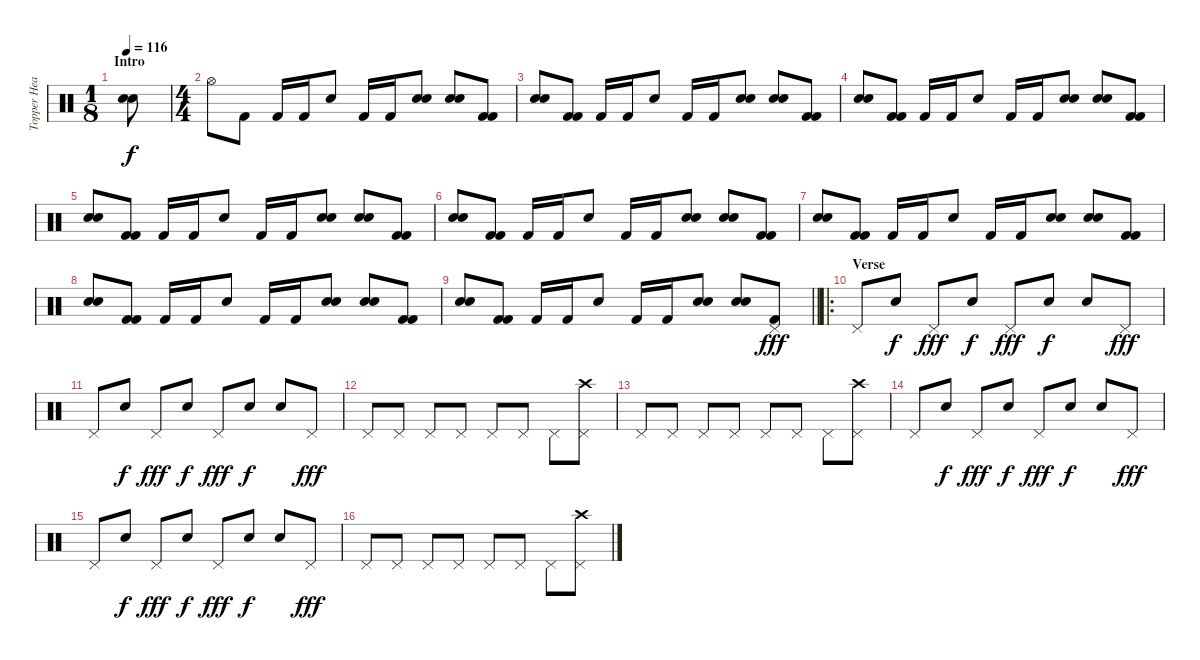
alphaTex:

\track ("Topper Headon - Percussion" "Topper Hea") {instrument percussion}
\staff {score}
\articulation defaults
\ts (1 8)
\section ("" "Intro")
\tempo 116
\clef neutral
\ks c
("Snare (hit) 2" "Snare (hit) 2").8{bd 480 dy f} |
\ts (4 4)
"Hi-Hat (open)".8 "Kick (hit) 2".8 "Kick (hit) 2".16 "Kick (hit) 2".16 "Snare (hit) 2".8 "Kick (hit) 2".16 "Kick (hit) 2".16 ("Snare (hit) 2" "Snare (hit) 2").8 ("Snare (hit) 2" "Snare (hit) 2").8 ("Kick (hit) 2" "Kick (hit) 2").8 |
("Snare (hit) 2" "Snare (hit) 2").8 ("Kick (hit) 2" "Kick (hit) 2").8 "Kick (hit) 2".16 "Kick (hit) 2".16 "Snare (hit) 2".8 "Kick (hit) 2".16 "Kick (hit) 2".16 ("Snare (hit) 2" "Snare (hit) 2").8 ("Snare (hit) 2" "Snare (hit) 2").8 ("Kick (hit) 2" "Kick (hit) 2").8 |
("Snare (hit) 2" "Snare (hit) 2").8 ("Kick (hit) 2" "Kick (hit) 2").8 "Kick (hit) 2".16 "Kick (hit) 2".16 "Snare (hit) 2".8 "Kick (hit) 2".16 "Kick (hit) 2".16 ("Snare (hit) 2" "Snare (hit) 2").8 ("Snare (hit) 2" "Snare (hit) 2").8 ("Kick (hit) 2" "Kick (hit) 2").8 |
("Snare (hit) 2" "Snare (hit) 2").8 ("Kick (hit) 2" "Kick (hit) 2").8 "Kick (hit) 2".16 "Kick (hit) 2".16 "Snare (hit) 2".8 "Kick (hit) 2".16 "Kick (hit) 2".16 ("Snare (hit) 2" "Snare (hit) 2").8 ("Snare (hit) 2" "Snare (hit) 2").8 ("Kick (hit) 2" "Kick (hit) 2").8 |
("Snare (hit) 2" "Snare (hit) 2").8 ("Kick (hit) 2" "Kick (hit) 2").8 "Kick (hit) 2".16 "Kick (hit) 2".16 "Snare (hit) 2".8 "Kick (hit) 2".16 "Kick (hit) 2".16 ("Snare (hit) 2" "Snare (hit) 2").8 ("Snare (hit) 2" "Snare (hit) 2").8 ("Kick (hit) 2" "Kick (hit) 2").8 |
("Snare (hit) 2" "Snare (hit) 2").8 ("Kick (hit) 2" "Kick (hit) 2").8 "Kick (hit) 2".16 "Kick (hit) 2".16 "Snare (hit) 2".8 "Kick (hit) 2".16 "Kick (hit) 2".16 ("Snare (hit) 2" "Snare (hit) 2").8 ("Snare (hit) 2" "Snare (hit) 2").8 ("Kick (hit) 2" "Kick (hit) 2").8 |
("Snare (hit) 2" "Snare (hit) 2").8 ("Kick (hit) 2" "Kick (hit) 2").8 "Kick (hit) 2".16 "Kick (hit) 2".16 "Snare (hit) 2".8 "Kick (hit) 2".16 "Kick (hit) 2".16 ("Snare (hit) 2" "Snare (hit) 2").8 ("Snare (hit) 2" "Snare (hit) 2").8 ("Kick (hit) 2" "Kick (hit) 2").8 |
\barLineRight lightlight
("Snare (hit) 2" "Snare (hit) 2").8 ("Kick (hit) 2" "Kick (hit) 2").8 "Kick (hit) 2".16 "Kick (hit) 2".16 "Snare (hit) 2".8 "Kick (hit) 2".16 "Kick (hit) 2".16 ("Snare (hit) 2" "Snare (hit) 2").8 ("Snare (hit) 2" "Snare (hit) 2").8 ("Kick (hit) 2" "Pedal Hi-Hat (hit)").8{dy fff} |
\ro
\section ("" "Verse")
"Pedal Hi-Hat (hit)".8 "Hand Clap (hit)".8{dy f} "Pedal Hi-Hat (hit)".8{dy fff} "Hand Clap (hit)".8{dy f} "Pedal Hi-Hat (hit)".8{dy fff} "Hand Clap (hit)".8{dy f} "Hand Clap (hit)".8 "Pedal Hi-Hat (hit)".8{dy fff} |
"Pedal Hi-Hat (hit)".8 "Hand Clap (hit)".8{dy f} "Pedal Hi-Hat (hit)".8{dy fff} "Hand Clap (hit)".8{dy f} "Pedal Hi-Hat (hit)".8{dy fff} "Hand Clap (hit)".8{dy f} "Hand Clap (hit)".8 "Pedal Hi-Hat (hit)".8{dy fff} |
"Pedal Hi-Hat (hit)".8 "Pedal Hi-Hat (hit)".8 "Pedal Hi-Hat (hit)".8 "Pedal Hi-Hat (hit)".8 "Pedal Hi-Hat (hit)".8 "Pedal Hi-Hat (hit)".8 "Pedal Hi-Hat (hit)".8 ("Crash high (hit)" "Pedal Hi-Hat (hit)").8 |
"Pedal Hi-Hat (hit)".8 "Pedal Hi-Hat (hit)".8 "Pedal Hi-Hat (hit)".8 "Pedal Hi-Hat (hit)".8 "Pedal Hi-Hat (hit)".8 "Pedal Hi-Hat (hit)".8 "Pedal Hi-Hat (hit)".8 ("Crash high (hit)" "Pedal Hi-Hat (hit)").8 |
"Pedal Hi-Hat (hit)".8 "Hand Clap (hit)".8{dy f} "Pedal Hi-Hat (hit)".8{dy fff} "Hand Clap (hit)".8{dy f} "Pedal Hi-Hat (hit)".8{dy fff} "Hand Clap (hit)".8{dy f} "Hand Clap (hit)".8 "Pedal Hi-Hat (hit)".8{dy fff} |
"Pedal Hi-Hat (hit)".8 "Hand Clap (hit)".8{dy f} "Pedal Hi-Hat (hit)".8{dy fff} "Hand Clap (hit)".8{dy f} "Pedal Hi-Hat (hit)".8{dy fff} "Hand Clap (hit)".8{dy f} "Hand Clap (hit)".8 "Pedal Hi-Hat (hit)".8{dy fff} |
"Pedal Hi-Hat (hit)".8 "Pedal Hi-Hat (hit)".8 "Pedal Hi-Hat (hit)".8 "Pedal Hi-Hat (hit)".8 "Pedal Hi-Hat (hit)".8 "Pedal Hi-Hat (hit)".8 "Pedal Hi-Hat (hit)".8 ("Crash high (hit)" "Pedal Hi-Hat (hit)").8
